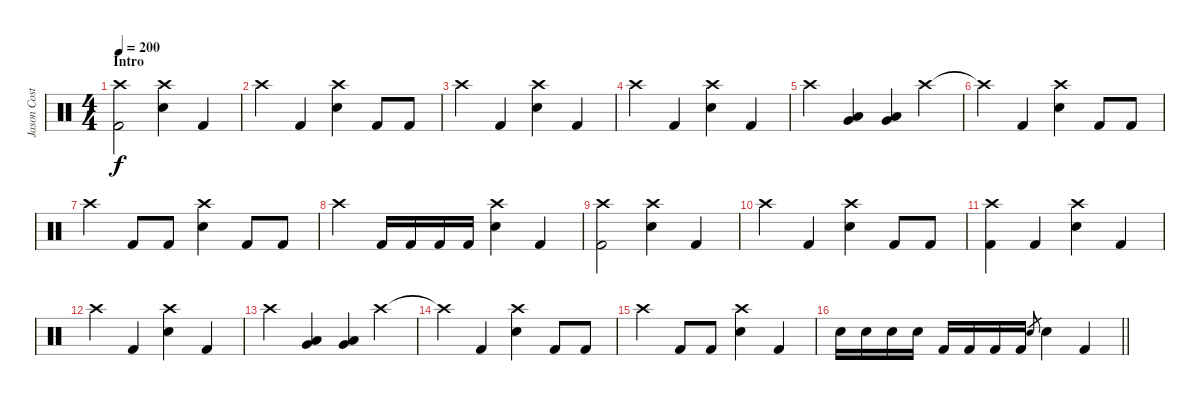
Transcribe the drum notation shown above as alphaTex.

\track ("Jason Costa" "Jason Cost") {instrument percussion}
\staff {score}
\articulation defaults
\ts (4 4)
\section ("" "Intro")
\tempo 200
\clef neutral
\ks c
("Crash high (hit)" "Kick (hit) 2").2{dy f} ("Crash high (hit)" "Electric Snare (hit)").4 "Kick (hit) 2".4 |
"Crash high (hit)".4 "Kick (hit) 2".4 ("Crash high (hit)" "Electric Snare (hit)").4 "Kick (hit) 2".8 "Kick (hit) 2".8 |
"Crash high (hit)".4 "Kick (hit) 2".4 ("Crash high (hit)" "Electric Snare (hit)").4 "Kick (hit) 2".4 |
"Crash high (hit)".4 "Kick (hit) 2".4 ("Crash high (hit)" "Electric Snare (hit)").4 "Kick (hit) 2".4 |
"Crash high (hit)".4 ("Very Low Tom (hit)" "Low Floor Tom (hit)").4 ("Very Low Tom (hit)" "Low Floor Tom (hit)").4 "Crash high (hit)".4 |
"Crash high (hit)"{t}.4 "Kick (hit) 2".4 ("Crash high (hit)" "Electric Snare (hit)").4 "Kick (hit) 2".8 "Kick (hit) 2".8 |
"Crash high (hit)".4 "Kick (hit) 2".8 "Kick (hit) 2".8 ("Crash high (hit)" "Electric Snare (hit)").4 "Kick (hit) 2".8 "Kick (hit) 2".8 |
"Crash high (hit)".4 "Kick (hit) 2".16 "Kick (hit) 2".16 "Kick (hit) 2".16 "Kick (hit) 2".16 ("Crash high (hit)" "Electric Snare (hit)").4 "Kick (hit) 2".4 |
("Crash high (hit)" "Kick (hit) 2").2 ("Crash high (hit)" "Electric Snare (hit)").4 "Kick (hit) 2".4 |
"Crash high (hit)".4 "Kick (hit) 2".4 ("Crash high (hit)" "Electric Snare (hit)").4 "Kick (hit) 2".8 "Kick (hit) 2".8 |
("Crash high (hit)" "Kick (hit) 2").4 "Kick (hit) 2".4 ("Crash high (hit)" "Electric Snare (hit)").4 "Kick (hit) 2".4 |
"Crash high (hit)".4 "Kick (hit) 2".4 ("Crash high (hit)" "Electric Snare (hit)").4 "Kick (hit) 2".4 |
"Crash high (hit)".4 ("Very Low Tom (hit)" "Low Floor Tom (hit)").4 ("Very Low Tom (hit)" "Low Floor Tom (hit)").4 "Crash high (hit)".4 |
"Crash high (hit)"{t}.4 "Kick (hit) 2".4 ("Crash high (hit)" "Electric Snare (hit)").4 "Kick (hit) 2".8 "Kick (hit) 2".8 |
"Crash high (hit)".4 "Kick (hit) 2".8 "Kick (hit) 2".8 ("Crash high (hit)" "Electric Snare (hit)").4 "Kick (hit) 2".4 |
\barLineRight lightlight "Electric Snare (hit)".16 "Electric Snare (hit)".16 "Electric Snare (hit)".16 "Electric Snare (hit)".16 "Kick (hit) 2".16 "Kick (hit) 2".16 "Kick (hit) 2".16 "Kick (hit) 2".16 "Electric Snare (hit)".8{gr} "Electric Snare (hit)".4 "Kick (hit) 2".4
